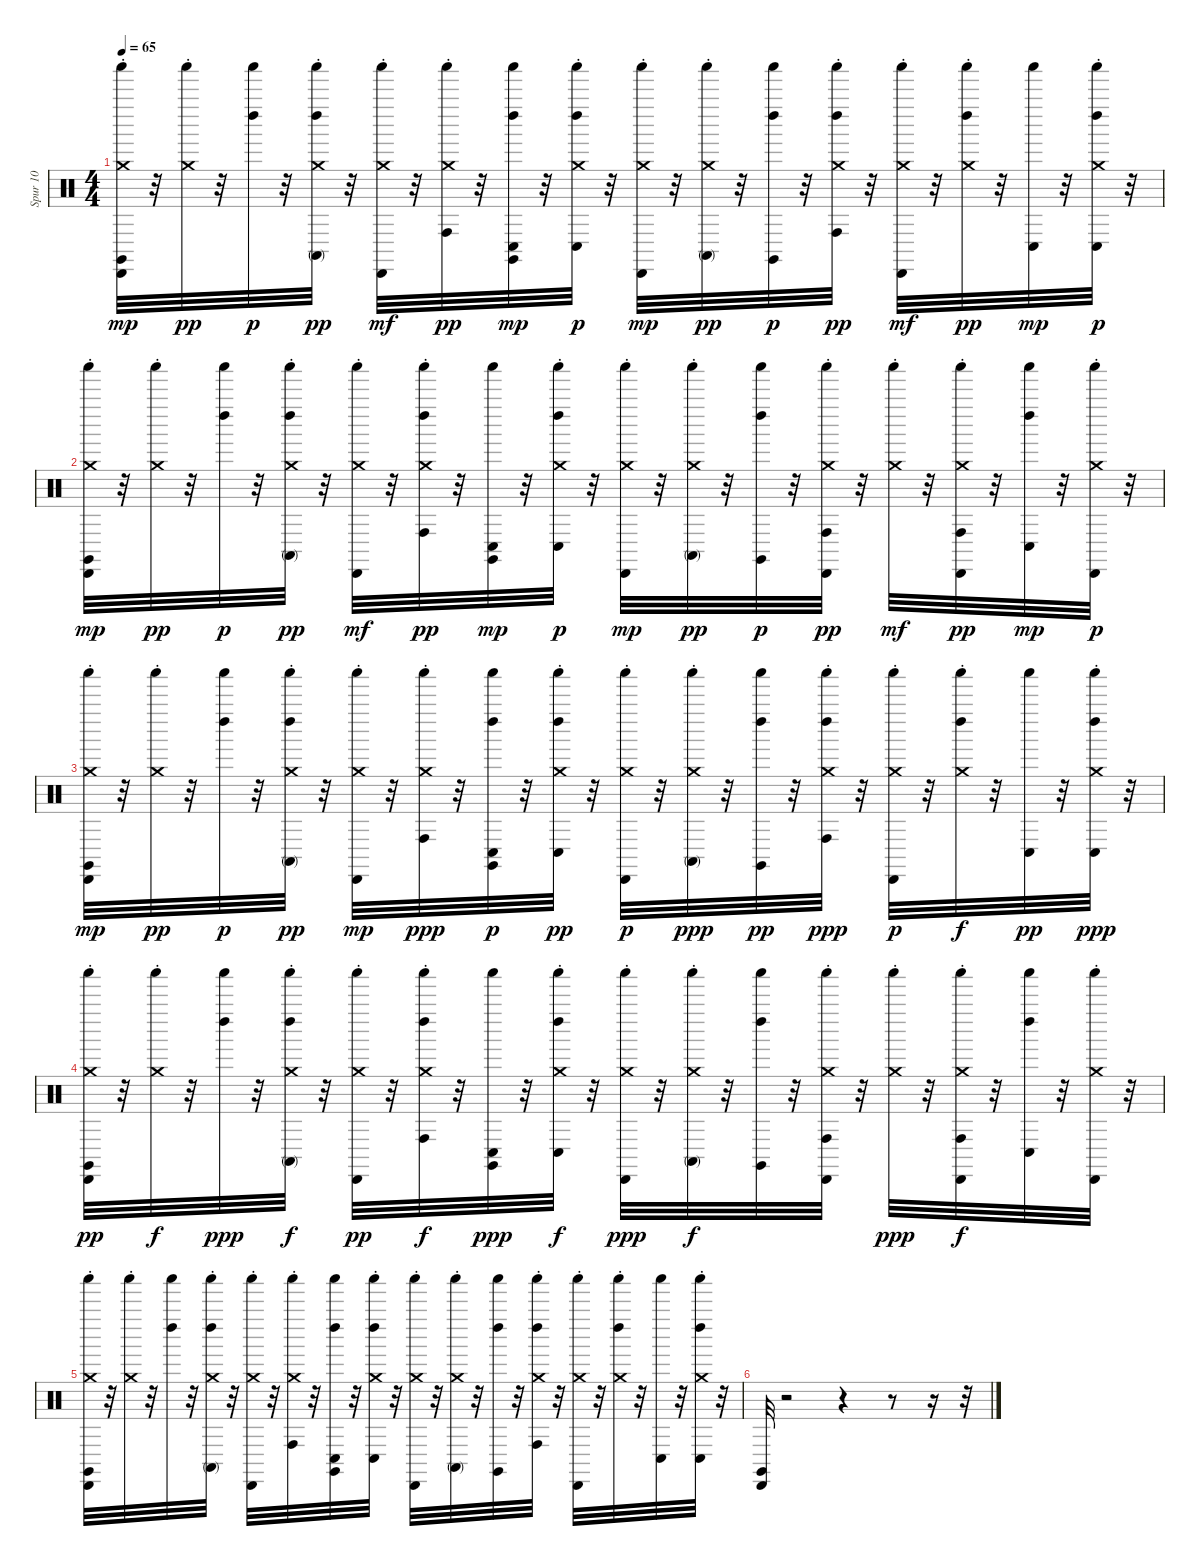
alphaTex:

\track ("Spur 10" "Spur 10") {instrument percussion}
\staff {score}
\articulation defaults
\ts (4 4)
\tempo 65
\clef neutral
\ks c
("Claves (hit)" "Cabasa (hit)" "Shaker (hit)" "Crash medium (choke)").32{dy mp} r.32 ("Shaker (hit)" "Crash medium (choke)").32{dy pp} r.32 ("Left Maraca (hit)" "Shaker (hit)").32{dy p} r.32 ("Conga high (mute)" "Left Maraca (hit)" "Shaker (hit)" "Crash medium (choke)").32{dy pp} r.32 ("Cabasa (hit)" "Shaker (hit)" "Crash medium (choke)").32{dy mf} r.32 ("Conga high (hit)" "Shaker (hit)" "Crash medium (choke)").32{dy pp} r.32 ("Claves (hit)" "Conga low (hit)" "Left Maraca (hit)" "Shaker (hit)").32{dy mp} r.32 ("Conga low (hit)" "Left Maraca (hit)" "Shaker (hit)" "Crash medium (choke)").32{dy p} r.32 ("Cabasa (hit)" "Shaker (hit)" "Crash medium (choke)").32{dy mp} r.32 ("Conga high (mute)" "Shaker (hit)" "Crash medium (choke)").32{dy pp} r.32 ("Claves (hit)" "Left Maraca (hit)" "Shaker (hit)").32{dy p} r.32 ("Conga high (hit)" "Left Maraca (hit)" "Shaker (hit)" "Crash medium (choke)").32{dy pp} r.32 ("Cabasa (hit)" "Shaker (hit)" "Crash medium (choke)").32{dy mf} r.32 ("Left Maraca (hit)" "Shaker (hit)" "Crash medium (choke)").32{dy pp} r.32 ("Conga low (hit)" "Shaker (hit)").32{dy mp} r.32 ("Conga low (hit)" "Left Maraca (hit)" "Shaker (hit)" "Crash medium (choke)").32{dy p} r.32 |
("Claves (hit)" "Cabasa (hit)" "Shaker (hit)" "Crash medium (choke)").32{dy mp} r.32 ("Shaker (hit)" "Crash medium (choke)").32{dy pp} r.32 ("Left Maraca (hit)" "Shaker (hit)").32{dy p} r.32 ("Conga high (mute)" "Left Maraca (hit)" "Shaker (hit)" "Crash medium (choke)").32{dy pp} r.32 ("Cabasa (hit)" "Shaker (hit)" "Crash medium (choke)").32{dy mf} r.32 ("Conga high (hit)" "Left Maraca (hit)" "Shaker (hit)" "Crash medium (choke)").32{dy pp} r.32 ("Claves (hit)" "Conga low (hit)" "Shaker (hit)").32{dy mp} r.32 ("Conga low (hit)" "Left Maraca (hit)" "Shaker (hit)" "Crash medium (choke)").32{dy p} r.32 ("Cabasa (hit)" "Shaker (hit)" "Crash medium (choke)").32{dy mp} r.32 ("Conga high (mute)" "Shaker (hit)" "Crash medium (choke)").32{dy pp} r.32 ("Claves (hit)" "Left Maraca (hit)" "Shaker (hit)").32{dy p} r.32 ("Conga high (hit)" "Cabasa (hit)" "Shaker (hit)" "Crash medium (choke)").32{dy pp} r.32 ("Shaker (hit)" "Crash medium (choke)").32{dy mf} r.32 ("Conga high (hit)" "Cabasa (hit)" "Shaker (hit)" "Crash medium (choke)").32{dy pp} r.32 ("Conga low (hit)" "Left Maraca (hit)" "Shaker (hit)").32{dy mp} r.32 ("Cabasa (hit)" "Shaker (hit)" "Crash medium (choke)").32{dy p} r.32 |
("Claves (hit)" "Cabasa (hit)" "Shaker (hit)" "Crash medium (choke)").32{dy mp} r.32 ("Shaker (hit)" "Crash medium (choke)").32{dy pp} r.32 ("Left Maraca (hit)" "Shaker (hit)").32{dy p} r.32 ("Conga high (mute)" "Left Maraca (hit)" "Shaker (hit)" "Crash medium (choke)").32{dy pp} r.32 ("Cabasa (hit)" "Shaker (hit)" "Crash medium (choke)").32{dy mp} r.32 ("Conga high (hit)" "Shaker (hit)" "Crash medium (choke)").32{dy ppp} r.32 ("Claves (hit)" "Conga low (hit)" "Left Maraca (hit)" "Shaker (hit)").32{dy p} r.32 ("Conga low (hit)" "Left Maraca (hit)" "Shaker (hit)" "Crash medium (choke)").32{dy pp} r.32 ("Cabasa (hit)" "Shaker (hit)" "Crash medium (choke)").32{dy p} r.32 ("Conga high (mute)" "Shaker (hit)" "Crash medium (choke)").32{dy ppp} r.32 ("Claves (hit)" "Left Maraca (hit)" "Shaker (hit)").32{dy pp} r.32 ("Conga high (hit)" "Left Maraca (hit)" "Shaker (hit)" "Crash medium (choke)").32{dy ppp} r.32 ("Cabasa (hit)" "Shaker (hit)" "Crash medium (choke)").32{dy p} r.32 ("Left Maraca (hit)" "Shaker (hit)" "Crash medium (choke)").32{dy f} r.32 ("Conga low (hit)" "Shaker (hit)").32{dy pp} r.32 ("Conga low (hit)" "Left Maraca (hit)" "Shaker (hit)" "Crash medium (choke)").32{dy ppp} r.32 |
("Claves (hit)" "Cabasa (hit)" "Shaker (hit)" "Crash medium (choke)").32{dy pp} r.32 ("Shaker (hit)" "Crash medium (choke)").32{dy f} r.32 ("Left Maraca (hit)" "Shaker (hit)").32{dy ppp} r.32 ("Conga high (mute)" "Left Maraca (hit)" "Shaker (hit)" "Crash medium (choke)").32{dy f} r.32 ("Cabasa (hit)" "Shaker (hit)" "Crash medium (choke)").32{dy pp} r.32 ("Conga high (hit)" "Left Maraca (hit)" "Shaker (hit)" "Crash medium (choke)").32{dy f} r.32 ("Claves (hit)" "Conga low (hit)" "Shaker (hit)").32{dy ppp} r.32 ("Conga low (hit)" "Left Maraca (hit)" "Shaker (hit)" "Crash medium (choke)").32{dy f} r.32 ("Cabasa (hit)" "Shaker (hit)" "Crash medium (choke)").32{dy ppp} r.32 ("Conga high (mute)" "Shaker (hit)" "Crash medium (choke)").32{dy f} r.32 ("Claves (hit)" "Left Maraca (hit)" "Shaker (hit)").32 r.32 ("Conga high (hit)" "Cabasa (hit)" "Shaker (hit)" "Crash medium (choke)").32 r.32 ("Shaker (hit)" "Crash medium (choke)").32{dy ppp} r.32 ("Conga high (hit)" "Cabasa (hit)" "Shaker (hit)" "Crash medium (choke)").32{dy f} r.32 ("Conga low (hit)" "Left Maraca (hit)" "Shaker (hit)").32 r.32 ("Cabasa (hit)" "Shaker (hit)" "Crash medium (choke)").32 r.32 |
("Claves (hit)" "Cabasa (hit)" "Shaker (hit)" "Crash medium (choke)").32 r.32 ("Shaker (hit)" "Crash medium (choke)").32 r.32 ("Left Maraca (hit)" "Shaker (hit)").32 r.32 ("Conga high (mute)" "Left Maraca (hit)" "Shaker (hit)" "Crash medium (choke)").32 r.32 ("Cabasa (hit)" "Shaker (hit)" "Crash medium (choke)").32 r.32 ("Conga high (hit)" "Shaker (hit)" "Crash medium (choke)").32 r.32 ("Claves (hit)" "Conga low (hit)" "Left Maraca (hit)" "Shaker (hit)").32 r.32 ("Conga low (hit)" "Left Maraca (hit)" "Shaker (hit)" "Crash medium (choke)").32 r.32 ("Cabasa (hit)" "Shaker (hit)" "Crash medium (choke)").32 r.32 ("Conga high (mute)" "Shaker (hit)" "Crash medium (choke)").32 r.32 ("Claves (hit)" "Left Maraca (hit)" "Shaker (hit)").32 r.32 ("Conga high (hit)" "Left Maraca (hit)" "Shaker (hit)" "Crash medium (choke)").32 r.32 ("Cabasa (hit)" "Shaker (hit)" "Crash medium (choke)").32 r.32 ("Left Maraca (hit)" "Shaker (hit)" "Crash medium (choke)").32 r.32 ("Conga low (hit)" "Shaker (hit)").32 r.32 ("Conga low (hit)" "Left Maraca (hit)" "Shaker (hit)" "Crash medium (choke)").32 r.32 |
("Claves (hit)" "Cabasa (hit)").32 r.2 r.4 r.8 r.16 r.32
